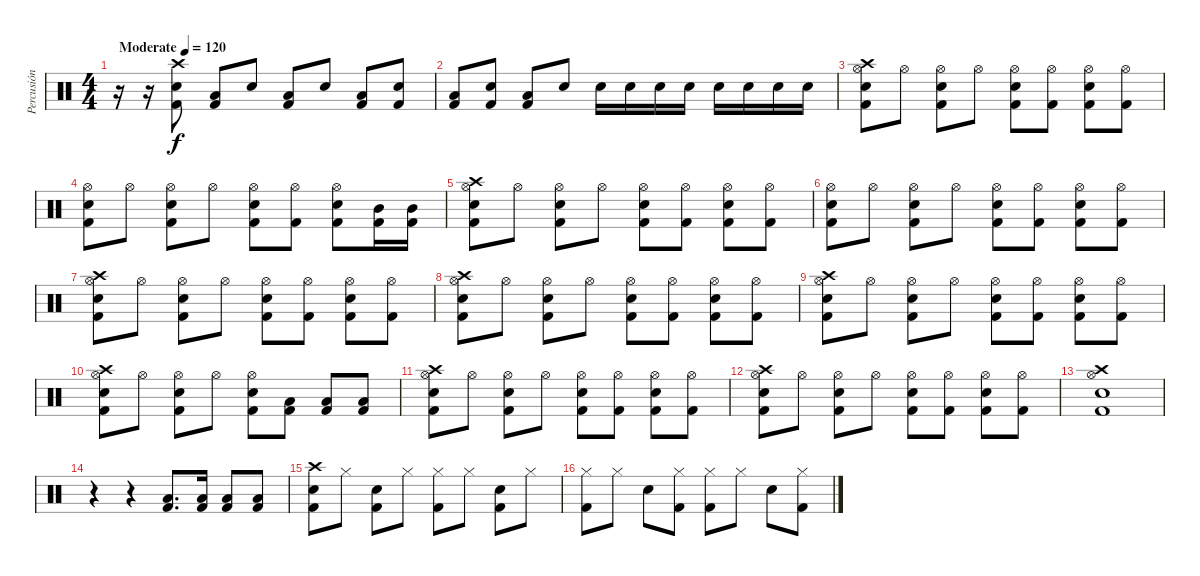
\track ("Percusión" "Percusión") {instrument percussion}
\staff {score}
\articulation defaults
\ts (4 4)
\tempo (120 "Moderate")
\clef neutral
\ks c
r.16{dy f} r.16 ("Crash high (hit)" "Electric Snare (hit)" "Kick (hit) 2").8 ("Low Floor Tom (hit)" "Kick (hit) 2").8 "Electric Snare (hit)".8 ("Low Floor Tom (hit)" "Kick (hit) 2").8 "Electric Snare (hit)".8 ("Low Floor Tom (hit)" "Kick (hit) 2").8 ("Electric Snare (hit)" "Kick (hit) 2").8 |
("Low Floor Tom (hit)" "Kick (hit) 2").8 ("Electric Snare (hit)" "Kick (hit) 2").8 ("Low Floor Tom (hit)" "Kick (hit) 2").8 "Electric Snare (hit)".8 "Electric Snare (hit)".16 "Electric Snare (hit)".16 "Electric Snare (hit)".16 "Electric Snare (hit)".16 "Electric Snare (hit)".16 "Electric Snare (hit)".16 "Electric Snare (hit)".16 "Electric Snare (hit)".16 |
("Crash high (hit)" "Hi-Hat (open)" "Electric Snare (hit)" "Kick (hit) 2").8 "Hi-Hat (open)".8 ("Hi-Hat (open)" "Electric Snare (hit)" "Kick (hit) 2").8 "Hi-Hat (open)".8 ("Hi-Hat (open)" "Electric Snare (hit)" "Kick (hit) 2").8 ("Hi-Hat (open)" "Kick (hit) 2").8 ("Hi-Hat (open)" "Electric Snare (hit)" "Kick (hit) 2").8 ("Hi-Hat (open)" "Kick (hit) 2").8 |
("Hi-Hat (open)" "Electric Snare (hit)" "Kick (hit) 2").8 "Hi-Hat (open)".8 ("Hi-Hat (open)" "Electric Snare (hit)" "Kick (hit) 2").8 "Hi-Hat (open)".8 ("Hi-Hat (open)" "Electric Snare (hit)" "Kick (hit) 2").8 ("Hi-Hat (open)" "Kick (hit) 2").8 ("Hi-Hat (open)" "Electric Snare (hit)" "Kick (hit) 2").8 ("Mid Tom (hit)" "Kick (hit) 2").16 ("Mid Tom (hit)" "Kick (hit) 2").16 |
("Crash high (hit)" "Hi-Hat (open)" "Electric Snare (hit)" "Kick (hit) 2").8 "Hi-Hat (open)".8 ("Hi-Hat (open)" "Electric Snare (hit)" "Kick (hit) 2").8 "Hi-Hat (open)".8 ("Hi-Hat (open)" "Electric Snare (hit)" "Kick (hit) 2").8 ("Hi-Hat (open)" "Kick (hit) 2").8 ("Hi-Hat (open)" "Electric Snare (hit)" "Kick (hit) 2").8 ("Hi-Hat (open)" "Kick (hit) 2").8 |
("Hi-Hat (open)" "Electric Snare (hit)" "Kick (hit) 2").8 "Hi-Hat (open)".8 ("Hi-Hat (open)" "Electric Snare (hit)" "Kick (hit) 2").8 "Hi-Hat (open)".8 ("Hi-Hat (open)" "Electric Snare (hit)" "Kick (hit) 2").8 ("Hi-Hat (open)" "Kick (hit) 2").8 ("Hi-Hat (open)" "Electric Snare (hit)" "Kick (hit) 2").8 ("Hi-Hat (open)" "Kick (hit) 2").8 |
("Crash high (hit)" "Hi-Hat (open)" "Electric Snare (hit)" "Kick (hit) 2").8 "Hi-Hat (open)".8 ("Hi-Hat (open)" "Electric Snare (hit)" "Kick (hit) 2").8 "Hi-Hat (open)".8 ("Hi-Hat (open)" "Electric Snare (hit)" "Kick (hit) 2").8 ("Hi-Hat (open)" "Kick (hit) 2").8 ("Hi-Hat (open)" "Electric Snare (hit)" "Kick (hit) 2").8 ("Hi-Hat (open)" "Kick (hit) 2").8 |
("Crash high (hit)" "Hi-Hat (open)" "Electric Snare (hit)" "Kick (hit) 2").8 "Hi-Hat (open)".8 ("Hi-Hat (open)" "Electric Snare (hit)" "Kick (hit) 2").8 "Hi-Hat (open)".8 ("Hi-Hat (open)" "Electric Snare (hit)" "Kick (hit) 2").8 ("Hi-Hat (open)" "Kick (hit) 2").8 ("Hi-Hat (open)" "Electric Snare (hit)" "Kick (hit) 2").8 ("Hi-Hat (open)" "Kick (hit) 2").8 |
("Crash high (hit)" "Hi-Hat (open)" "Electric Snare (hit)" "Kick (hit) 2").8 "Hi-Hat (open)".8 ("Hi-Hat (open)" "Electric Snare (hit)" "Kick (hit) 2").8 "Hi-Hat (open)".8 ("Hi-Hat (open)" "Electric Snare (hit)" "Kick (hit) 2").8 ("Hi-Hat (open)" "Kick (hit) 2").8 ("Hi-Hat (open)" "Electric Snare (hit)" "Kick (hit) 2").8 ("Hi-Hat (open)" "Kick (hit) 2").8 |
("Crash high (hit)" "Hi-Hat (open)" "Electric Snare (hit)" "Kick (hit) 2").8 "Hi-Hat (open)".8 ("Hi-Hat (open)" "Electric Snare (hit)" "Kick (hit) 2").8 "Hi-Hat (open)".8 ("Hi-Hat (open)" "Electric Snare (hit)" "Kick (hit) 2").8 ("Low Floor Tom (hit)" "Kick (hit) 2").8 ("Low Floor Tom (hit)" "Kick (hit) 2").8 ("Low Floor Tom (hit)" "Kick (hit) 2").8 |
("Crash high (hit)" "Hi-Hat (open)" "Electric Snare (hit)" "Kick (hit) 2").8 "Hi-Hat (open)".8 ("Hi-Hat (open)" "Electric Snare (hit)" "Kick (hit) 2").8 "Hi-Hat (open)".8 ("Hi-Hat (open)" "Electric Snare (hit)" "Kick (hit) 2").8 ("Hi-Hat (open)" "Kick (hit) 2").8 ("Hi-Hat (open)" "Electric Snare (hit)" "Kick (hit) 2").8 ("Hi-Hat (open)" "Kick (hit) 2").8 |
("Crash high (hit)" "Hi-Hat (open)" "Electric Snare (hit)" "Kick (hit) 2").8 "Hi-Hat (open)".8 ("Hi-Hat (open)" "Electric Snare (hit)" "Kick (hit) 2").8 "Hi-Hat (open)".8 ("Hi-Hat (open)" "Electric Snare (hit)" "Kick (hit) 2").8 ("Hi-Hat (open)" "Kick (hit) 2").8 ("Hi-Hat (open)" "Electric Snare (hit)" "Kick (hit) 2").8 ("Hi-Hat (open)" "Kick (hit) 2").8 |
("Crash high (hit)" "Hi-Hat (open)" "Electric Snare (hit)" "Kick (hit) 2").1 |
r.4 r.4 ("Low Floor Tom (hit)" "Kick (hit) 2").8{d} ("Low Floor Tom (hit)" "Kick (hit) 2").16 ("Low Floor Tom (hit)" "Kick (hit) 2").8 ("Low Floor Tom (hit)" "Kick (hit) 2").8 |
("Crash high (hit)" "Electric Snare (hit)" "Kick (hit) 2").8 "Hi-Hat (closed)".8 ("Electric Snare (hit)" "Kick (hit) 2").8 "Hi-Hat (closed)".8 ("Hi-Hat (closed)" "Kick (hit) 2").8 "Hi-Hat (closed)".8 ("Electric Snare (hit)" "Kick (hit) 2").8 "Hi-Hat (closed)".8 |
("Hi-Hat (closed)" "Kick (hit) 2").8 "Hi-Hat (closed)".8 "Electric Snare (hit)".8 ("Hi-Hat (closed)" "Kick (hit) 2").8 ("Hi-Hat (closed)" "Kick (hit) 2").8 "Hi-Hat (closed)".8 "Electric Snare (hit)".8 ("Hi-Hat (closed)" "Kick (hit) 2").8
